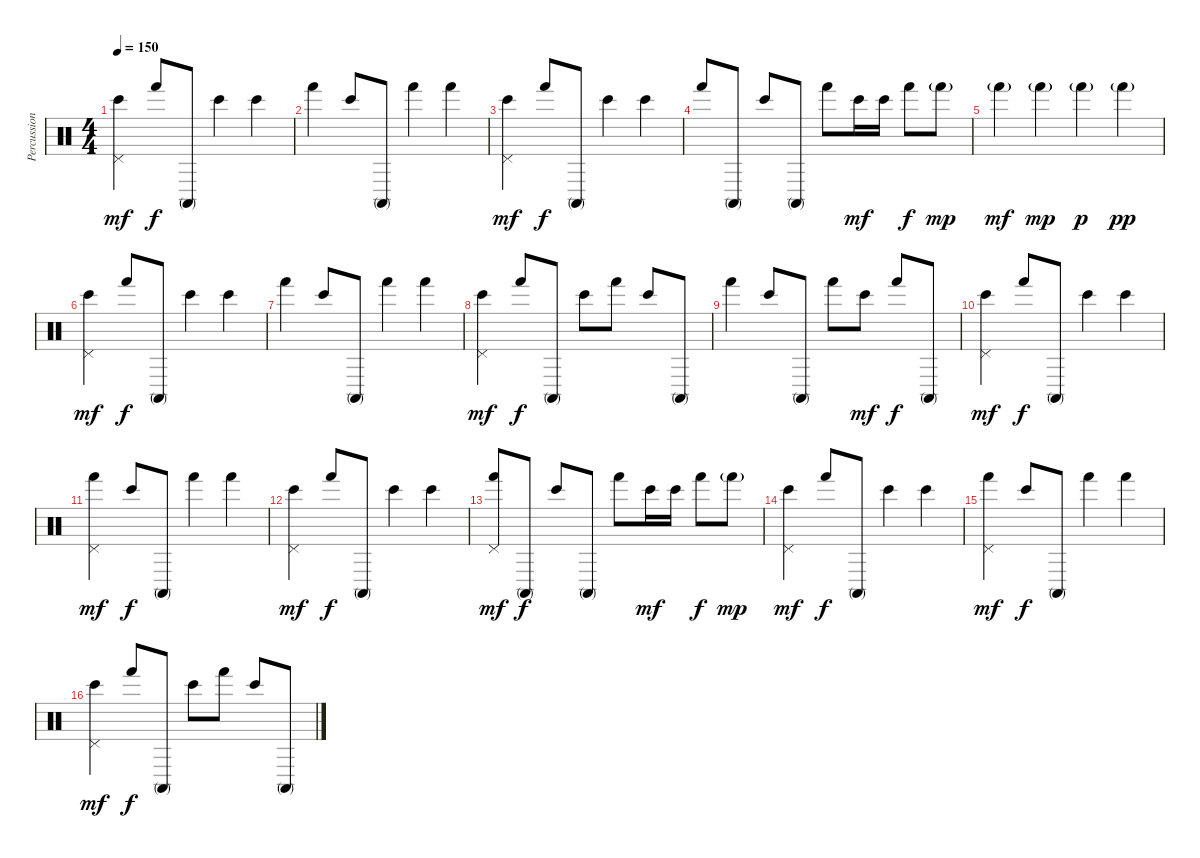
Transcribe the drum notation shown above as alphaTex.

\track ("Percussions" "Percussion") {instrument percussion}
\staff {score}
\articulation defaults
\ts (4 4)
\tempo 150
\clef neutral
\ks c
("Pedal Hi-Hat (hit)" "Bongo High (hit)").4{dy mf} "Hand (hit)".8{dy f} "Conga high (mute)".8 "Bongo High (hit)".4 "Bongo High (hit)".4 |
"Hand (hit)".4 "Bongo High (hit)".8 "Conga high (mute)".8 "Hand (hit)".4 "Hand (hit)".4 |
("Pedal Hi-Hat (hit)" "Bongo High (hit)").4{dy mf} "Hand (hit)".8{dy f} "Conga high (mute)".8 "Bongo High (hit)".4 "Bongo High (hit)".4 |
"Hand (hit)".8 "Conga high (mute)".8 "Bongo High (hit)".8 "Conga high (mute)".8 "Hand (hit)".8 "Bongo High (hit)".16{dy mf} "Bongo High (hit)".16 "Hand (hit)".8{dy f} "Hand (hit)"{g}.8{dy mp} |
"Hand (hit)"{g}.4{dy mf} "Hand (hit)"{g}.4{dy mp} "Hand (hit)"{g}.4{dy p} "Hand (hit)"{g}.4{dy pp} |
("Pedal Hi-Hat (hit)" "Bongo High (hit)").4{dy mf} "Hand (hit)".8{dy f} "Conga high (mute)".8 "Bongo High (hit)".4 "Bongo High (hit)".4 |
"Hand (hit)".4 "Bongo High (hit)".8 "Conga high (mute)".8 "Hand (hit)".4 "Hand (hit)".4 |
("Pedal Hi-Hat (hit)" "Bongo High (hit)").4{dy mf} "Hand (hit)".8{dy f} "Conga high (mute)".8 "Bongo High (hit)".8 "Hand (hit)".8 "Bongo High (hit)".8 "Conga high (mute)".8 |
"Hand (hit)".4 "Bongo High (hit)".8 "Conga high (mute)".8 "Hand (hit)".8 "Bongo High (hit)".8{dy mf} "Hand (hit)".8{dy f} "Conga high (mute)".8 |
("Pedal Hi-Hat (hit)" "Bongo High (hit)").4{dy mf} "Hand (hit)".8{dy f} "Conga high (mute)".8 "Bongo High (hit)".4 "Bongo High (hit)".4 |
("Pedal Hi-Hat (hit)" "Hand (hit)").4{dy mf} "Bongo High (hit)".8{dy f} "Conga high (mute)".8 "Hand (hit)".4 "Hand (hit)".4 |
("Pedal Hi-Hat (hit)" "Bongo High (hit)").4{dy mf} "Hand (hit)".8{dy f} "Conga high (mute)".8 "Bongo High (hit)".4 "Bongo High (hit)".4 |
("Pedal Hi-Hat (hit)" "Hand (hit)").8{dy mf} "Conga high (mute)".8{dy f} "Bongo High (hit)".8 "Conga high (mute)".8 "Hand (hit)".8 "Bongo High (hit)".16{dy mf} "Bongo High (hit)".16 "Hand (hit)".8{dy f} "Hand (hit)"{g}.8{dy mp} |
("Pedal Hi-Hat (hit)" "Bongo High (hit)").4{dy mf} "Hand (hit)".8{dy f} "Conga high (mute)".8 "Bongo High (hit)".4 "Bongo High (hit)".4 |
("Pedal Hi-Hat (hit)" "Hand (hit)").4{dy mf} "Bongo High (hit)".8{dy f} "Conga high (mute)".8 "Hand (hit)".4 "Hand (hit)".4 |
("Pedal Hi-Hat (hit)" "Bongo High (hit)").4{dy mf} "Hand (hit)".8{dy f} "Conga high (mute)".8 "Bongo High (hit)".8 "Hand (hit)".8 "Bongo High (hit)".8 "Conga high (mute)".8
